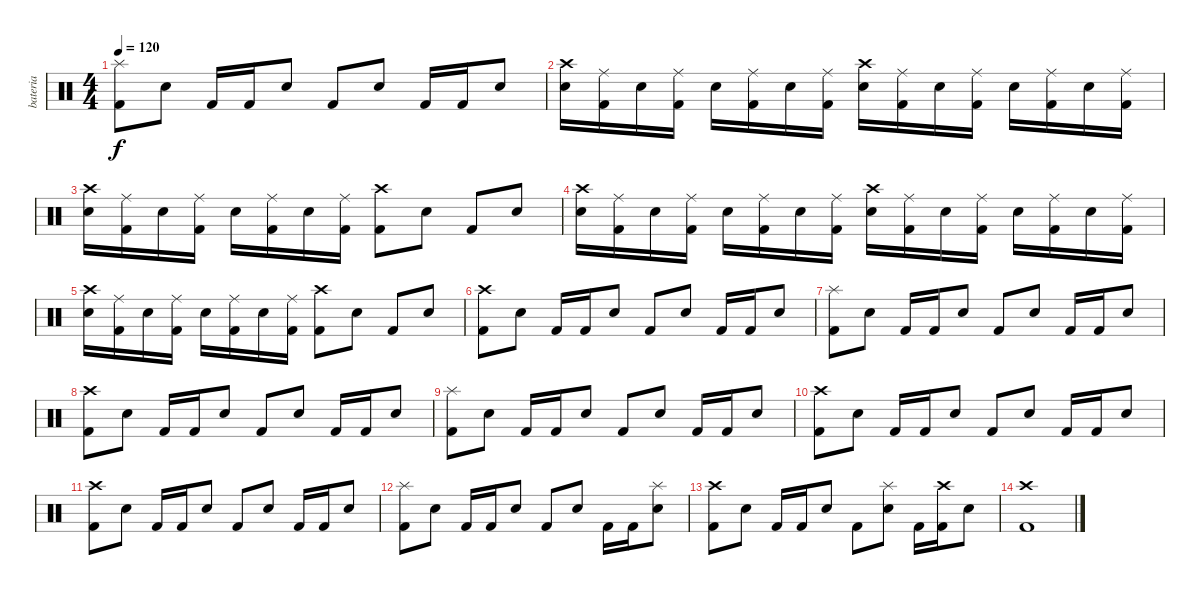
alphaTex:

\track ("bateria" "bateria") {instrument percussion}
\staff {score}
\articulation defaults
\ts (4 4)
\tempo 120
\clef neutral
\ks c
("Kick (hit) 2" "Splash (hit)").8{dy f} "Electric Snare (hit)".8 "Kick (hit) 2".16 "Kick (hit) 2".16 "Electric Snare (hit)".8 "Kick (hit) 2".8 "Electric Snare (hit)".8 "Kick (hit) 2".16 "Kick (hit) 2".16 "Electric Snare (hit)".8 |
("Electric Snare (hit)" "Crash high (hit)").16 ("Kick (hit) 2" "Ride (middle)").16 "Electric Snare (hit)".16 ("Kick (hit) 2" "Ride (middle)").16 "Electric Snare (hit)".16 ("Kick (hit) 2" "Ride (middle)").16 "Electric Snare (hit)".16 ("Kick (hit) 2" "Ride (middle)").16 ("Electric Snare (hit)" "Crash high (hit)").16 ("Kick (hit) 2" "Ride (middle)").16 "Electric Snare (hit)".16 ("Kick (hit) 2" "Ride (middle)").16 "Electric Snare (hit)".16 ("Kick (hit) 2" "Ride (middle)").16 "Electric Snare (hit)".16 ("Kick (hit) 2" "Ride (middle)").16 |
("Electric Snare (hit)" "Crash high (hit)").16 ("Kick (hit) 2" "Ride (middle)").16 "Electric Snare (hit)".16 ("Kick (hit) 2" "Ride (middle)").16 "Electric Snare (hit)".16 ("Kick (hit) 2" "Ride (middle)").16 "Electric Snare (hit)".16 ("Kick (hit) 2" "Ride (middle)").16 ("Kick (hit) 2" "Crash high (hit)").8 "Electric Snare (hit)".8 "Kick (hit) 2".8 "Electric Snare (hit)".8 |
("Electric Snare (hit)" "Crash high (hit)").16 ("Kick (hit) 2" "Ride (middle)").16 "Electric Snare (hit)".16 ("Kick (hit) 2" "Ride (middle)").16 "Electric Snare (hit)".16 ("Kick (hit) 2" "Ride (middle)").16 "Electric Snare (hit)".16 ("Kick (hit) 2" "Ride (middle)").16 ("Electric Snare (hit)" "Crash high (hit)").16 ("Kick (hit) 2" "Ride (middle)").16 "Electric Snare (hit)".16 ("Kick (hit) 2" "Ride (middle)").16 "Electric Snare (hit)".16 ("Kick (hit) 2" "Ride (middle)").16 "Electric Snare (hit)".16 ("Kick (hit) 2" "Ride (middle)").16 |
("Electric Snare (hit)" "Crash high (hit)").16 ("Kick (hit) 2" "Ride (middle)").16 "Electric Snare (hit)".16 ("Kick (hit) 2" "Ride (middle)").16 "Electric Snare (hit)".16 ("Kick (hit) 2" "Ride (middle)").16 "Electric Snare (hit)".16 ("Kick (hit) 2" "Ride (middle)").16 ("Kick (hit) 2" "Crash high (hit)").8 "Electric Snare (hit)".8 "Kick (hit) 2".8 "Electric Snare (hit)".8 |
("Kick (hit) 2" "Crash high (hit)").8 "Electric Snare (hit)".8 "Kick (hit) 2".16 "Kick (hit) 2".16 "Electric Snare (hit)".8 "Kick (hit) 2".8 "Electric Snare (hit)".8 "Kick (hit) 2".16 "Kick (hit) 2".16 "Electric Snare (hit)".8 |
("Kick (hit) 2" "Splash (hit)").8 "Electric Snare (hit)".8 "Kick (hit) 2".16 "Kick (hit) 2".16 "Electric Snare (hit)".8 "Kick (hit) 2".8 "Electric Snare (hit)".8 "Kick (hit) 2".16 "Kick (hit) 2".16 "Electric Snare (hit)".8 |
("Kick (hit) 2" "Crash high (hit)").8 "Electric Snare (hit)".8 "Kick (hit) 2".16 "Kick (hit) 2".16 "Electric Snare (hit)".8 "Kick (hit) 2".8 "Electric Snare (hit)".8 "Kick (hit) 2".16 "Kick (hit) 2".16 "Electric Snare (hit)".8 |
("Kick (hit) 2" "Splash (hit)").8 "Electric Snare (hit)".8 "Kick (hit) 2".16 "Kick (hit) 2".16 "Electric Snare (hit)".8 "Kick (hit) 2".8 "Electric Snare (hit)".8 "Kick (hit) 2".16 "Kick (hit) 2".16 "Electric Snare (hit)".8 |
("Kick (hit) 2" "Crash high (hit)").8 "Electric Snare (hit)".8 "Kick (hit) 2".16 "Kick (hit) 2".16 "Electric Snare (hit)".8 "Kick (hit) 2".8 "Electric Snare (hit)".8 "Kick (hit) 2".16 "Kick (hit) 2".16 "Electric Snare (hit)".8 |
("Kick (hit) 2" "Crash high (hit)").8 "Electric Snare (hit)".8 "Kick (hit) 2".16 "Kick (hit) 2".16 "Electric Snare (hit)".8 "Kick (hit) 2".8 "Electric Snare (hit)".8 "Kick (hit) 2".16 "Kick (hit) 2".16 "Electric Snare (hit)".8 |
("Kick (hit) 2" "Splash (hit)").8 "Electric Snare (hit)".8 "Kick (hit) 2".16 "Kick (hit) 2".16 "Electric Snare (hit)".8 "Kick (hit) 2".8 "Electric Snare (hit)".8 "Kick (hit) 2".16 "Kick (hit) 2".16 ("Electric Snare (hit)" "Splash (hit)").8 |
("Kick (hit) 2" "Crash high (hit)").8 "Electric Snare (hit)".8 "Kick (hit) 2".16 "Kick (hit) 2".16 "Electric Snare (hit)".8 "Kick (hit) 2".8 ("Electric Snare (hit)" "Splash (hit)").8 "Kick (hit) 2".16 ("Kick (hit) 2" "Crash high (hit)").16 "Electric Snare (hit)".8 |
("Kick (hit) 2" "Crash high (hit)").1
